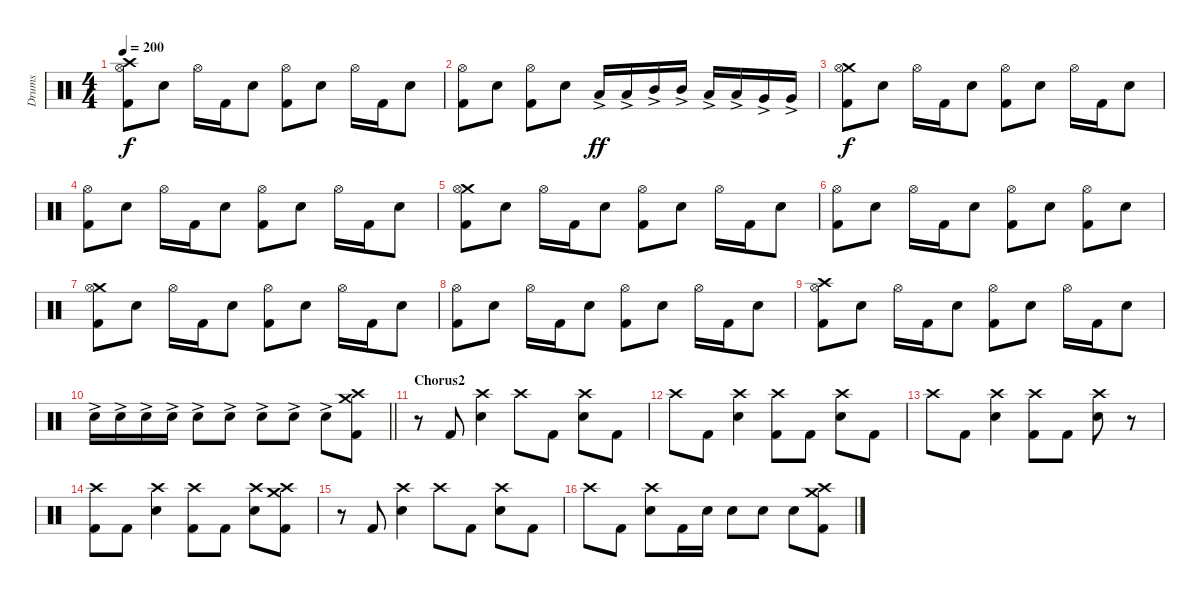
\track ("Drums" "Drums") {instrument percussion}
\staff {score}
\articulation defaults
\ts (4 4)
\tempo 200
\clef neutral
\ks c
("Crash high (hit)" "Hi-Hat (open)" "Kick (hit) 2").8{dy f} "Electric Snare (hit)".8 "Hi-Hat (open)".16 "Kick (hit) 2".16 "Electric Snare (hit)".8 ("Hi-Hat (open)" "Kick (hit) 2").8 "Electric Snare (hit)".8 "Hi-Hat (open)".16 "Kick (hit) 2".16 "Electric Snare (hit)".8 |
("Hi-Hat (open)" "Kick (hit) 2").8 "Electric Snare (hit)".8 ("Hi-Hat (open)" "Kick (hit) 2").8 "Electric Snare (hit)".8 "Low Tom (hit)"{ac}.16{dy ff} "Low Tom (hit)"{ac}.16 "Mid Tom (hit)"{ac}.16 "Mid Tom (hit)"{ac}.16 "Low Tom (hit)"{ac}.16 "Low Tom (hit)"{ac}.16 "Very Low Tom (hit)"{ac}.16 "Very Low Tom (hit)"{ac}.16 |
("Crash medium (hit)" "Hi-Hat (open)" "Kick (hit) 2").8{dy f} "Electric Snare (hit)".8 "Hi-Hat (open)".16 "Kick (hit) 2".16 "Electric Snare (hit)".8 ("Hi-Hat (open)" "Kick (hit) 2").8 "Electric Snare (hit)".8 "Hi-Hat (open)".16 "Kick (hit) 2".16 "Electric Snare (hit)".8 |
("Hi-Hat (open)" "Kick (hit) 2").8 "Electric Snare (hit)".8 "Hi-Hat (open)".16 "Kick (hit) 2".16 "Electric Snare (hit)".8 ("Hi-Hat (open)" "Kick (hit) 2").8 "Electric Snare (hit)".8 "Hi-Hat (open)".16 "Kick (hit) 2".16 "Electric Snare (hit)".8 |
("Crash medium (hit)" "Hi-Hat (open)" "Kick (hit) 2").8 "Electric Snare (hit)".8 "Hi-Hat (open)".16 "Kick (hit) 2".16 "Electric Snare (hit)".8 ("Hi-Hat (open)" "Kick (hit) 2").8 "Electric Snare (hit)".8 "Hi-Hat (open)".16 "Kick (hit) 2".16 "Electric Snare (hit)".8 |
("Hi-Hat (open)" "Kick (hit) 2").8 "Electric Snare (hit)".8 "Hi-Hat (open)".16 "Kick (hit) 2".16 "Electric Snare (hit)".8 ("Hi-Hat (open)" "Kick (hit) 2").8 "Electric Snare (hit)".8 ("Hi-Hat (open)" "Kick (hit) 2").8 "Electric Snare (hit)".8 |
("Crash medium (hit)" "Hi-Hat (open)" "Kick (hit) 2").8 "Electric Snare (hit)".8 "Hi-Hat (open)".16 "Kick (hit) 2".16 "Electric Snare (hit)".8 ("Hi-Hat (open)" "Kick (hit) 2").8 "Electric Snare (hit)".8 "Hi-Hat (open)".16 "Kick (hit) 2".16 "Electric Snare (hit)".8 |
("Hi-Hat (open)" "Kick (hit) 2").8 "Electric Snare (hit)".8 "Hi-Hat (open)".16 "Kick (hit) 2".16 "Electric Snare (hit)".8 ("Hi-Hat (open)" "Kick (hit) 2").8 "Electric Snare (hit)".8 "Hi-Hat (open)".16 "Kick (hit) 2".16 "Electric Snare (hit)".8 |
("Crash high (hit)" "Hi-Hat (open)" "Kick (hit) 2").8 "Electric Snare (hit)".8 "Hi-Hat (open)".16 "Kick (hit) 2".16 "Electric Snare (hit)".8 ("Hi-Hat (open)" "Kick (hit) 2").8 "Electric Snare (hit)".8 "Hi-Hat (open)".16 "Kick (hit) 2".16 "Electric Snare (hit)".8 |
\barLineRight lightlight "Electric Snare (hit)"{ac}.16 "Electric Snare (hit)"{ac}.16 "Electric Snare (hit)"{ac}.16 "Electric Snare (hit)"{ac}.16 "Electric Snare (hit)"{ac}.8 "Electric Snare (hit)"{ac}.8 "Electric Snare (hit)"{ac}.8 "Electric Snare (hit)"{ac}.8 "Electric Snare (hit)"{ac}.8
("Crash high (hit)" "Crash medium (hit)" "Kick (hit) 2").8 |
\section ("" "Chorus2")
r.8 "Kick (hit) 2".8 ("Crash high (hit)" "Electric Snare (hit)").4 "Crash high (hit)".8 "Kick (hit) 2".8 ("Crash high (hit)" "Electric Snare (hit)").8 "Kick (hit) 2".8 |
"Crash high (hit)".8 "Kick (hit) 2".8 ("Crash high (hit)" "Electric Snare (hit)").4 ("Crash high (hit)" "Kick (hit) 2").8 "Kick (hit) 2".8 ("Crash high (hit)" "Electric Snare (hit)").8 "Kick (hit) 2".8 |
"Crash high (hit)".8 "Kick (hit) 2".8 ("Crash high (hit)" "Electric Snare (hit)").4 ("Crash high (hit)" "Kick (hit) 2").8 "Kick (hit) 2".8 ("Crash high (hit)" "Electric Snare (hit)").8 r.8 |
("Crash high (hit)" "Kick (hit) 2").8 "Kick (hit) 2".8 ("Crash high (hit)" "Electric Snare (hit)").4 ("Crash high (hit)" "Kick (hit) 2").8 "Kick (hit) 2".8 ("Crash high (hit)" "Electric Snare (hit)").8 ("Crash high (hit)" "Crash medium (hit)" "Kick (hit) 2").8 |
r.8 "Kick (hit) 2".8 ("Crash high (hit)" "Electric Snare (hit)").4 "Crash high (hit)".8 "Kick (hit) 2".8 ("Crash high (hit)" "Electric Snare (hit)").8 "Kick (hit) 2".8 |
"Crash high (hit)".8 "Kick (hit) 2".8 ("Crash high (hit)" "Electric Snare (hit)").8 "Kick (hit) 2".16 "Electric Snare (hit)".16 "Electric Snare (hit)".8 "Electric Snare (hit)".8 "Electric Snare (hit)".8 ("Crash high (hit)" "Crash medium (hit)" "Kick (hit) 2").8
